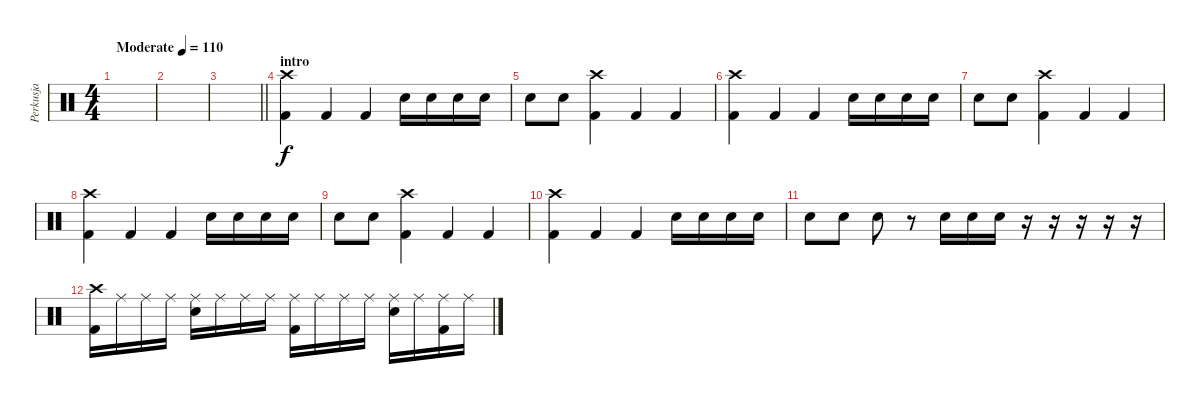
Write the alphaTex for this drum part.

\track ("Perkusja" "Perkusja") {instrument percussion}
\staff {score}
\articulation defaults
\ts (4 4)
\tempo (110 "Moderate")
\clef neutral
\ks c
|
|
\barLineRight lightlight
|
\section ("" "intro")
("Kick (hit) 2" "Crash high (hit)").4 "Kick (hit) 2".4 "Kick (hit) 2".4 "Snare (hit) 2".16 "Snare (hit) 2".16 "Snare (hit) 2".16 "Snare (hit) 2".16 |
"Snare (hit) 2".8 "Snare (hit) 2".8 ("Kick (hit) 2" "Crash high (hit)").4 "Kick (hit) 2".4 "Kick (hit) 2".4 |
("Kick (hit) 2" "Crash high (hit)").4 "Kick (hit) 2".4 "Kick (hit) 2".4 "Snare (hit) 2".16 "Snare (hit) 2".16 "Snare (hit) 2".16 "Snare (hit) 2".16 |
"Snare (hit) 2".8 "Snare (hit) 2".8 ("Kick (hit) 2" "Crash high (hit)").4 "Kick (hit) 2".4 "Kick (hit) 2".4 |
("Kick (hit) 2" "Crash high (hit)").4 "Kick (hit) 2".4 "Kick (hit) 2".4 "Snare (hit) 2".16 "Snare (hit) 2".16 "Snare (hit) 2".16 "Snare (hit) 2".16 |
"Snare (hit) 2".8 "Snare (hit) 2".8 ("Kick (hit) 2" "Crash high (hit)").4 "Kick (hit) 2".4 "Kick (hit) 2".4 |
("Kick (hit) 2" "Crash high (hit)").4 "Kick (hit) 2".4 "Kick (hit) 2".4 "Snare (hit) 2".16 "Snare (hit) 2".16 "Snare (hit) 2".16 "Snare (hit) 2".16 |
"Snare (hit) 2".8 "Snare (hit) 2".8 "Snare (hit) 2".8 r.8 "Snare (hit) 2".16 "Snare (hit) 2".16 "Snare (hit) 2".16 r.16 r.16 r.16 r.16 r.16 |
("Kick (hit) 2" "Crash high (hit)").16 "Ride (middle)".16 "Ride (middle)".16 "Ride (middle)".16 ("Snare (hit) 2" "Ride (middle)").16 "Ride (middle)".16 "Ride (middle)".16 "Ride (middle)".16 ("Kick (hit) 2" "Ride (middle)").16 "Ride (middle)".16 "Ride (middle)".16 "Ride (middle)".16 ("Snare (hit) 2" "Ride (middle)").16 "Ride (middle)".16 ("Kick (hit) 2" "Ride (middle)").16 "Ride (middle)".16
